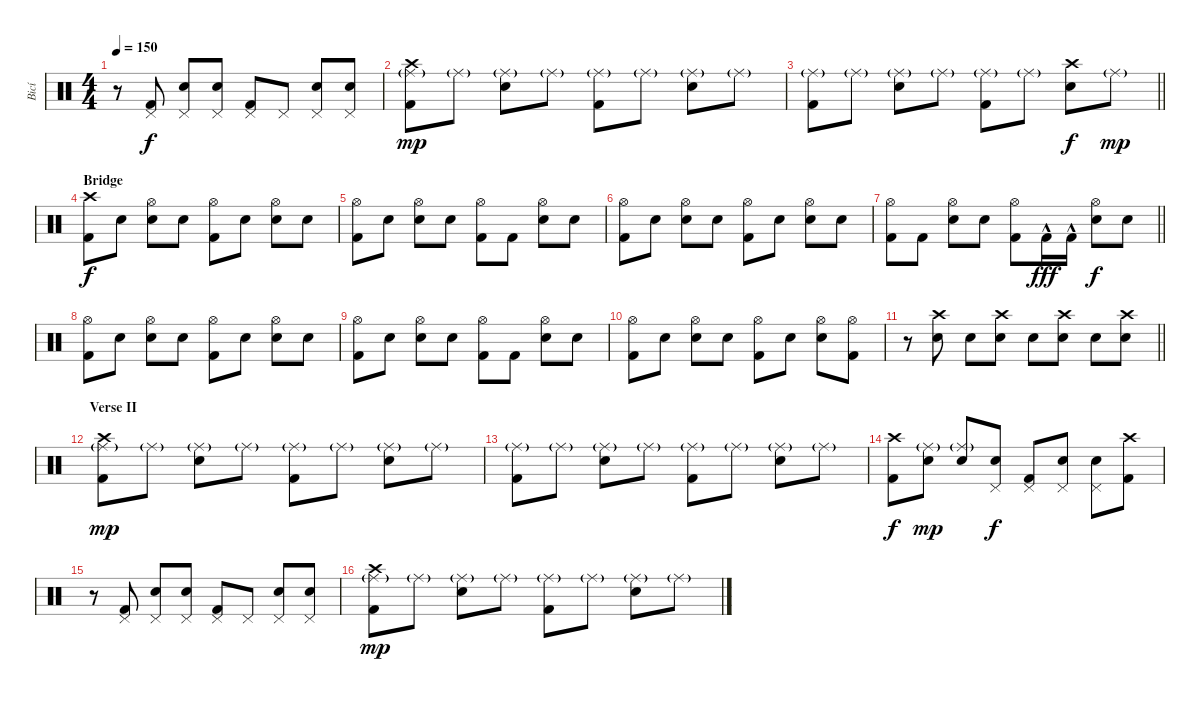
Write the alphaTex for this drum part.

\track ("Bicí" "Bicí") {instrument percussion}
\staff {score}
\articulation defaults
\ts (4 4)
\tempo 150
\clef neutral
\ks c
r.8{dy f} ("Pedal Hi-Hat (hit)" "Kick (hit) 2").8 ("Pedal Hi-Hat (hit)" "Electric Snare (hit)").8 ("Pedal Hi-Hat (hit)" "Electric Snare (hit)").8 ("Pedal Hi-Hat (hit)" "Kick (hit) 2").8 "Pedal Hi-Hat (hit)".8 ("Pedal Hi-Hat (hit)" "Electric Snare (hit)").8 ("Pedal Hi-Hat (hit)" "Snare (hit)").8 |
("Crash high (hit)" "Ride (middle)"{g} "Kick (hit) 2").8{dy mp} "Ride (middle)"{g}.8 ("Ride (middle)"{g} "Electric Snare (hit)").8 "Ride (middle)"{g}.8 ("Ride (middle)"{g} "Kick (hit) 2").8 "Ride (middle)"{g}.8 ("Ride (middle)"{g} "Electric Snare (hit)").8 "Ride (middle)"{g}.8 |
\barLineRight lightlight
("Ride (middle)"{g} "Kick (hit) 2").8 "Ride (middle)"{g}.8 ("Ride (middle)"{g} "Electric Snare (hit)").8 "Ride (middle)"{g}.8 ("Ride (middle)"{g} "Kick (hit) 2").8 "Ride (middle)"{g}.8 ("Crash high (hit)" "Electric Snare (hit)").8{dy f} "Ride (middle)"{g}.8{dy mp} |
\section ("" "Bridge")
("Crash high (hit)" "Kick (hit) 2").8{dy f} "Snare (hit)".8 ("Hi-Hat (open)" "Electric Snare (hit)").8 "Snare (hit)".8 ("Hi-Hat (open)" "Kick (hit) 2").8 "Snare (hit)".8 ("Hi-Hat (open)" "Electric Snare (hit)").8 "Snare (hit)".8 |
("Hi-Hat (open)" "Kick (hit) 2").8 "Snare (hit)".8 ("Hi-Hat (open)" "Electric Snare (hit)").8 "Snare (hit)".8 ("Hi-Hat (open)" "Kick (hit) 2").8 "Kick (hit) 2".8 ("Hi-Hat (open)" "Electric Snare (hit)").8 "Snare (hit)".8 |
("Hi-Hat (open)" "Kick (hit) 2").8 "Snare (hit)".8 ("Hi-Hat (open)" "Electric Snare (hit)").8 "Snare (hit)".8 ("Hi-Hat (open)" "Kick (hit) 2").8 "Snare (hit)".8 ("Hi-Hat (open)" "Electric Snare (hit)").8 "Snare (hit)".8 |
\barLineRight lightlight
("Hi-Hat (open)" "Kick (hit) 2").8 "Kick (hit) 2".8 ("Hi-Hat (open)" "Electric Snare (hit)").8 "Snare (hit)".8 ("Hi-Hat (open)" "Kick (hit) 2").8 "Kick (hit) 2"{hac}.16{dy fff} "Kick (hit) 2"{hac}.16 ("Hi-Hat (open)" "Electric Snare (hit)").8{dy f} "Snare (hit)".8 |
("Hi-Hat (open)" "Kick (hit) 2").8 "Snare (hit)".8 ("Hi-Hat (open)" "Electric Snare (hit)").8 "Snare (hit)".8 ("Hi-Hat (open)" "Kick (hit) 2").8 "Snare (hit)".8 ("Hi-Hat (open)" "Electric Snare (hit)").8 "Snare (hit)".8 |
("Hi-Hat (open)" "Kick (hit) 2").8 "Snare (hit)".8 ("Hi-Hat (open)" "Electric Snare (hit)").8 "Snare (hit)".8 ("Hi-Hat (open)" "Kick (hit) 2").8 "Kick (hit) 2".8 ("Hi-Hat (open)" "Electric Snare (hit)").8 "Snare (hit)".8 |
("Hi-Hat (open)" "Kick (hit) 2").8 "Snare (hit)".8 ("Hi-Hat (open)" "Electric Snare (hit)").8 "Snare (hit)".8 ("Hi-Hat (open)" "Kick (hit) 2").8 "Snare (hit)".8 ("Hi-Hat (open)" "Electric Snare (hit)").8 ("Hi-Hat (open)" "Kick (hit) 2").8 |
\barLineRight lightlight
r.8 ("Crash high (hit)" "Electric Snare (hit)").8 "Snare (hit)".8 ("Crash high (hit)" "Electric Snare (hit)").8 "Snare (hit)".8 ("Crash high (hit)" "Electric Snare (hit)").8 "Snare (hit)".8 ("Crash high (hit)" "Electric Snare (hit)").8 |
\section ("" "Verse II")
("Crash high (hit)" "Ride (middle)"{g} "Kick (hit) 2").8{dy mp} "Ride (middle)"{g}.8 ("Ride (middle)"{g} "Electric Snare (hit)").8 "Ride (middle)"{g}.8 ("Ride (middle)"{g} "Kick (hit) 2").8 "Ride (middle)"{g}.8 ("Ride (middle)"{g} "Electric Snare (hit)").8 "Ride (middle)"{g}.8 |
("Ride (middle)"{g} "Kick (hit) 2").8 "Ride (middle)"{g}.8 ("Ride (middle)"{g} "Electric Snare (hit)").8 "Ride (middle)"{g}.8 ("Ride (middle)"{g} "Kick (hit) 2").8 "Ride (middle)"{g}.8 ("Ride (middle)"{g} "Electric Snare (hit)").8 "Ride (middle)"{g}.8 |
("Crash high (hit)" "Kick (hit) 2").8{dy f} ("Ride (middle)"{g} "Snare (hit)").8{dy mp} ("Ride (middle)"{g} "Electric Snare (hit)").8 ("Pedal Hi-Hat (hit)" "Snare (hit)").8{dy f} ("Pedal Hi-Hat (hit)" "Kick (hit) 2").8 ("Pedal Hi-Hat (hit)" "Snare (hit)").8 ("Pedal Hi-Hat (hit)" "Electric Snare (hit)").8 ("Crash high (hit)" "Kick (hit) 2").8 |
r.8 ("Pedal Hi-Hat (hit)" "Kick (hit) 2").8 ("Pedal Hi-Hat (hit)" "Electric Snare (hit)").8 ("Pedal Hi-Hat (hit)" "Electric Snare (hit)").8 ("Pedal Hi-Hat (hit)" "Kick (hit) 2").8 "Pedal Hi-Hat (hit)".8 ("Pedal Hi-Hat (hit)" "Electric Snare (hit)").8 ("Pedal Hi-Hat (hit)" "Snare (hit)").8 |
("Crash high (hit)" "Ride (middle)"{g} "Kick (hit) 2").8{dy mp} "Ride (middle)"{g}.8 ("Ride (middle)"{g} "Electric Snare (hit)").8 "Ride (middle)"{g}.8 ("Ride (middle)"{g} "Kick (hit) 2").8 "Ride (middle)"{g}.8 ("Ride (middle)"{g} "Electric Snare (hit)").8 "Ride (middle)"{g}.8
